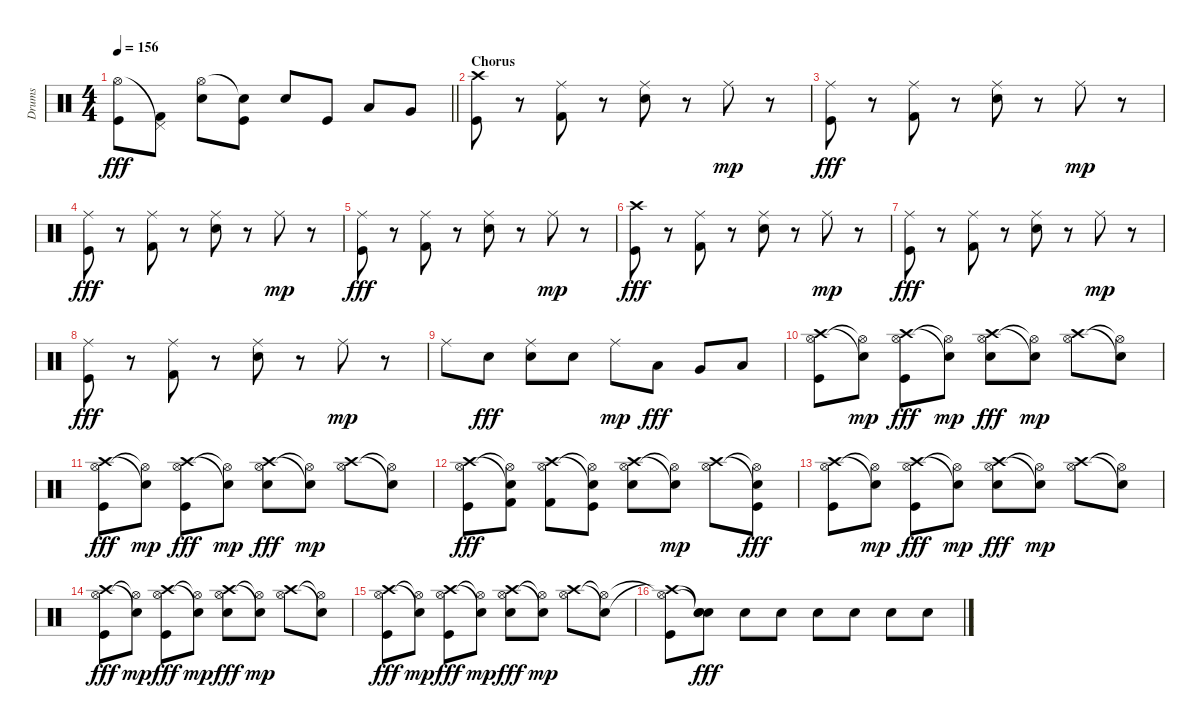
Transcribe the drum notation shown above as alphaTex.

\track ("Drums" "Drums") {instrument percussion}
\staff {score}
\articulation defaults
\ts (4 4)
\tempo 156
\clef neutral
\barLineRight lightlight
\ks c
("Hi-Hat (open)" "Kick (hit)").8{dy fff} ("Pedal Hi-Hat (hit)"{t} "Kick (hit) 2").8 ("Hi-Hat (open)" "Snare (hit) 2").8 ("Snare (hit)"{t} "Kick (hit)").8 "Snare (hit) 2".8 "Kick (hit)".8 "Low Tom (hit)".8 "Very Low Tom (hit)".8 |
\section ("" "Chorus")
("Crash high (hit)" "Kick (hit)").8 r.8 ("Ride (middle)" "Kick (hit) 2").8 r.8 ("Ride (middle)" "Snare (hit) 2").8 r.8 "Ride (middle)".8{dy mp} r.8 |
("Ride (middle)" "Kick (hit)").8{dy fff} r.8 ("Ride (middle)" "Kick (hit) 2").8 r.8 ("Ride (middle)" "Snare (hit) 2").8 r.8 "Ride (middle)".8{dy mp} r.8 |
("Ride (middle)" "Kick (hit)").8{dy fff} r.8 ("Ride (middle)" "Kick (hit) 2").8 r.8 ("Ride (middle)" "Snare (hit) 2").8 r.8 "Ride (middle)".8{dy mp} r.8 |
("Ride (middle)" "Kick (hit)").8{dy fff} r.8 ("Ride (middle)" "Kick (hit) 2").8 r.8 ("Ride (middle)" "Snare (hit) 2").8 r.8 "Ride (middle)".8{dy mp} r.8 |
("Crash high (hit)" "Kick (hit)").8{dy fff} r.8 ("Ride (middle)" "Kick (hit) 2").8 r.8 ("Ride (middle)" "Snare (hit) 2").8 r.8 "Ride (middle)".8{dy mp} r.8 |
("Ride (middle)" "Kick (hit)").8{dy fff} r.8 ("Ride (middle)" "Kick (hit) 2").8 r.8 ("Ride (middle)" "Snare (hit) 2").8 r.8 "Ride (middle)".8{dy mp} r.8 |
("Ride (middle)" "Kick (hit)").8{dy fff} r.8 ("Ride (middle)" "Kick (hit) 2").8 r.8 ("Ride (middle)" "Snare (hit) 2").8 r.8 "Ride (middle)".8{dy mp} r.8 |
"Ride (middle)".8 "Snare (hit) 2".8{dy fff} ("Ride (middle)" "Electric Snare (hit)").8 "Snare (hit) 2".8 "Ride (middle)".8{dy mp} "Low Tom (hit)".8{dy fff} "Very Low Tom (hit)".8 "Low Floor Tom (hit)".8 |
("Crash high (hit)" "Hi-Hat (open)" "Kick (hit)").8 ("Snare (hit)"{t} "Hi-Hat (open)"{t}).8{dy mp} ("Crash high (hit)" "Hi-Hat (open)" "Kick (hit)").8{dy fff} ("Snare (hit)"{t} "Hi-Hat (open)"{t}).8{dy mp} ("Crash high (hit)" "Hi-Hat (open)" "Snare (hit) 2").8{dy fff} ("Snare (hit)"{t} "Hi-Hat (open)"{t}).8{dy mp} ("Crash high (hit)" "Hi-Hat (open)").8 ("Snare (hit)"{t} "Hi-Hat (open)"{t}).8 |
("Crash high (hit)" "Hi-Hat (open)" "Kick (hit)").8{dy fff} ("Snare (hit)"{t} "Hi-Hat (open)"{t}).8{dy mp} ("Crash high (hit)" "Hi-Hat (open)" "Kick (hit)").8{dy fff} ("Snare (hit)"{t} "Hi-Hat (open)"{t}).8{dy mp} ("Crash high (hit)" "Hi-Hat (open)" "Snare (hit) 2").8{dy fff} ("Snare (hit)"{t} "Hi-Hat (open)"{t}).8{dy mp} ("Crash high (hit)" "Hi-Hat (open)").8 ("Snare (hit)"{t} "Hi-Hat (open)"{t}).8 |
("Crash high (hit)" "Hi-Hat (open)" "Kick (hit)").8{dy fff} ("Snare (hit)"{t} "Hi-Hat (open)"{t} "Kick (hit) 2").8 ("Crash high (hit)" "Hi-Hat (open)" "Kick (hit) 2").8 ("Snare (hit)"{t} "Hi-Hat (open)"{t} "Kick (hit)").8 ("Crash high (hit)" "Hi-Hat (open)" "Snare (hit) 2").8 ("Snare (hit)"{t} "Hi-Hat (open)"{t}).8{dy mp} ("Crash high (hit)" "Hi-Hat (open)").8 ("Snare (hit)"{t} "Hi-Hat (open)"{t} "Kick (hit)").8{dy fff} |
("Crash high (hit)" "Hi-Hat (open)" "Kick (hit)").8 ("Snare (hit)"{t} "Hi-Hat (open)"{t}).8{dy mp} ("Crash high (hit)" "Hi-Hat (open)" "Kick (hit)").8{dy fff} ("Snare (hit)"{t} "Hi-Hat (open)"{t}).8{dy mp} ("Crash high (hit)" "Hi-Hat (open)" "Snare (hit) 2").8{dy fff} ("Snare (hit)"{t} "Hi-Hat (open)"{t}).8{dy mp} ("Crash high (hit)" "Hi-Hat (open)").8 ("Snare (hit)"{t} "Hi-Hat (open)"{t}).8 |
("Crash high (hit)" "Hi-Hat (open)" "Kick (hit)").8{dy fff} ("Snare (hit)"{t} "Hi-Hat (open)"{t}).8{dy mp} ("Crash high (hit)" "Hi-Hat (open)" "Kick (hit)").8{dy fff} ("Snare (hit)"{t} "Hi-Hat (open)"{t}).8{dy mp} ("Crash high (hit)" "Hi-Hat (open)" "Snare (hit) 2").8{dy fff} ("Snare (hit)"{t} "Hi-Hat (open)"{t}).8{dy mp} ("Crash high (hit)" "Hi-Hat (open)").8 ("Snare (hit)"{t} "Hi-Hat (open)"{t}).8 |
("Crash high (hit)" "Hi-Hat (open)" "Kick (hit)").8{dy fff} ("Snare (hit)"{t} "Hi-Hat (open)"{t}).8{dy mp} ("Crash high (hit)" "Hi-Hat (open)" "Kick (hit)").8{dy fff} ("Snare (hit)"{t} "Hi-Hat (open)"{t}).8{dy mp} ("Crash high (hit)" "Hi-Hat (open)" "Snare (hit) 2").8{dy fff} ("Snare (hit)"{t} "Hi-Hat (open)"{t}).8{dy mp} ("Crash high (hit)" "Hi-Hat (open)").8 ("Snare (hit)"{t} "Hi-Hat (open)"{t}).8 |
("Crash high (hit)"{t} "Hi-Hat (open)"{t} "Kick (hit)").8 ("Snare (hit)"{t} "Snare (hit)"{t} "Electric Snare (hit)").8{dy fff} "Electric Snare (hit)".8 "Electric Snare (hit)".8 "Electric Snare (hit)".8 "Electric Snare (hit)".8 "Electric Snare (hit)".8 "Electric Snare (hit)".8
